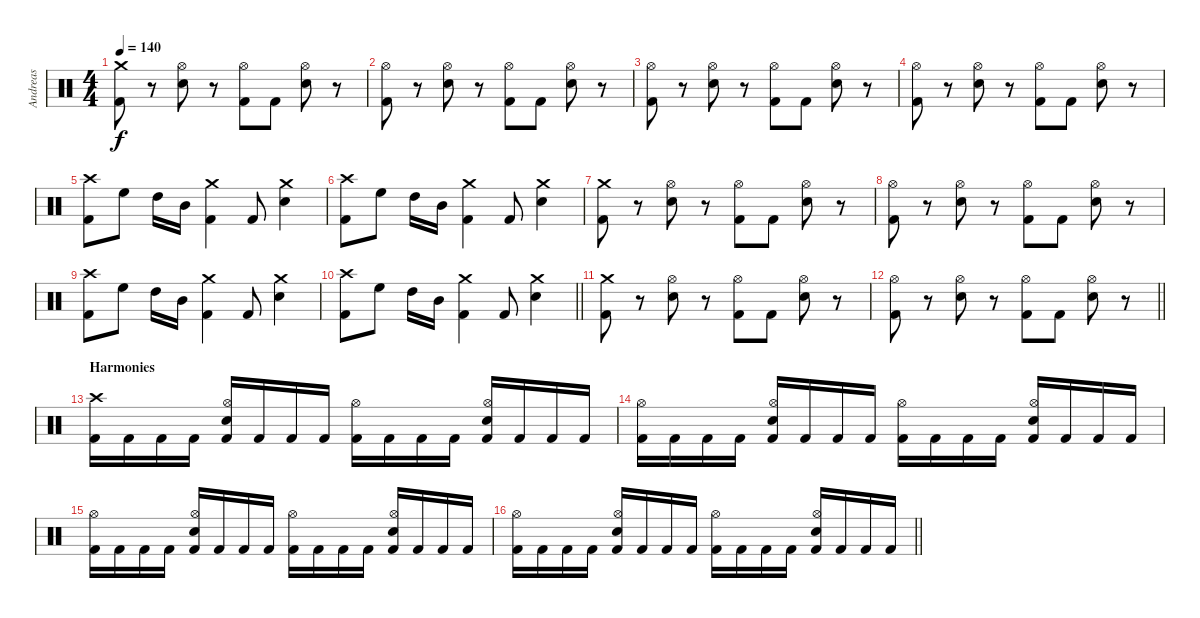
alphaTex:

\track ("Andreas" "Andreas") {instrument percussion}
\staff {score}
\articulation defaults
\ts (4 4)
\tempo 140
\clef neutral
\ks c
("Crash medium (hit)" "Kick (hit) 2").8{dy f} r.8 ("Hi-Hat (open)" "Electric Snare (hit)").8 r.8 ("Hi-Hat (open)" "Kick (hit) 2").8 "Kick (hit) 2".8 ("Hi-Hat (open)" "Electric Snare (hit)").8 r.8 |
("Hi-Hat (open)" "Kick (hit) 2").8 r.8 ("Hi-Hat (open)" "Electric Snare (hit)").8 r.8 ("Hi-Hat (open)" "Kick (hit) 2").8 "Kick (hit) 2".8 ("Hi-Hat (open)" "Electric Snare (hit)").8 r.8 |
("Hi-Hat (open)" "Kick (hit) 2").8 r.8 ("Hi-Hat (open)" "Electric Snare (hit)").8 r.8 ("Hi-Hat (open)" "Kick (hit) 2").8 "Kick (hit) 2".8 ("Hi-Hat (open)" "Electric Snare (hit)").8 r.8 |
("Hi-Hat (open)" "Kick (hit) 2").8 r.8 ("Hi-Hat (open)" "Electric Snare (hit)").8 r.8 ("Hi-Hat (open)" "Kick (hit) 2").8 "Kick (hit) 2".8 ("Hi-Hat (open)" "Electric Snare (hit)").8 r.8 |
("Crash high (hit)" "Kick (hit) 2").8 "High Floor Tom (hit)".8 "High Tom (hit)".16 "Mid Tom (hit)".16 ("Crash medium (hit)" "Kick (hit) 2").4 "Kick (hit) 2".8 ("Crash medium (hit)" "Electric Snare (hit)").4 |
("Crash high (hit)" "Kick (hit) 2").8 "High Floor Tom (hit)".8 "High Tom (hit)".16 "Mid Tom (hit)".16 ("Crash medium (hit)" "Kick (hit) 2").4 "Kick (hit) 2".8 ("Crash medium (hit)" "Electric Snare (hit)").4 |
("Crash medium (hit)" "Kick (hit) 2").8 r.8 ("Hi-Hat (open)" "Electric Snare (hit)").8 r.8 ("Hi-Hat (open)" "Kick (hit) 2").8 "Kick (hit) 2".8 ("Hi-Hat (open)" "Electric Snare (hit)").8 r.8 |
("Hi-Hat (open)" "Kick (hit) 2").8 r.8 ("Hi-Hat (open)" "Electric Snare (hit)").8 r.8 ("Hi-Hat (open)" "Kick (hit) 2").8 "Kick (hit) 2".8 ("Hi-Hat (open)" "Electric Snare (hit)").8 r.8 |
("Crash high (hit)" "Kick (hit) 2").8 "High Floor Tom (hit)".8 "High Tom (hit)".16 "Mid Tom (hit)".16 ("Crash medium (hit)" "Kick (hit) 2").4 "Kick (hit) 2".8 ("Crash medium (hit)" "Electric Snare (hit)").4 |
\barLineRight lightlight
("Crash high (hit)" "Kick (hit) 2").8 "High Floor Tom (hit)".8 "High Tom (hit)".16 "Mid Tom (hit)".16 ("Crash medium (hit)" "Kick (hit) 2").4 "Kick (hit) 2".8 ("Crash medium (hit)" "Electric Snare (hit)").4 |
("Crash medium (hit)" "Kick (hit) 2").8 r.8 ("Hi-Hat (open)" "Electric Snare (hit)").8 r.8 ("Hi-Hat (open)" "Kick (hit) 2").8 "Kick (hit) 2".8 ("Hi-Hat (open)" "Electric Snare (hit)").8 r.8 |
\barLineRight lightlight
("Hi-Hat (open)" "Kick (hit) 2").8 r.8 ("Hi-Hat (open)" "Electric Snare (hit)").8 r.8 ("Hi-Hat (open)" "Kick (hit) 2").8 "Kick (hit) 2".8 ("Hi-Hat (open)" "Electric Snare (hit)").8 r.8 |
\section ("" "Harmonies")
("Crash high (hit)" "Kick (hit) 2").16 "Kick (hit) 2".16 "Kick (hit) 2".16 "Kick (hit) 2".16 ("Hi-Hat (open)" "Electric Snare (hit)" "Kick (hit) 2").16 "Kick (hit) 2".16 "Kick (hit) 2".16 "Kick (hit) 2".16 ("Hi-Hat (open)" "Kick (hit) 2").16 "Kick (hit) 2".16 "Kick (hit) 2".16 "Kick (hit) 2".16 ("Hi-Hat (open)" "Electric Snare (hit)" "Kick (hit) 2").16 "Kick (hit) 2".16 "Kick (hit) 2".16 "Kick (hit) 2".16 |
("Hi-Hat (open)" "Kick (hit) 2").16 "Kick (hit) 2".16 "Kick (hit) 2".16 "Kick (hit) 2".16 ("Hi-Hat (open)" "Electric Snare (hit)" "Kick (hit) 2").16 "Kick (hit) 2".16 "Kick (hit) 2".16 "Kick (hit) 2".16 ("Hi-Hat (open)" "Kick (hit) 2").16 "Kick (hit) 2".16 "Kick (hit) 2".16 "Kick (hit) 2".16 ("Hi-Hat (open)" "Electric Snare (hit)" "Kick (hit) 2").16 "Kick (hit) 2".16 "Kick (hit) 2".16 "Kick (hit) 2".16 |
("Hi-Hat (open)" "Kick (hit) 2").16 "Kick (hit) 2".16 "Kick (hit) 2".16 "Kick (hit) 2".16 ("Hi-Hat (open)" "Electric Snare (hit)" "Kick (hit) 2").16 "Kick (hit) 2".16 "Kick (hit) 2".16 "Kick (hit) 2".16 ("Hi-Hat (open)" "Kick (hit) 2").16 "Kick (hit) 2".16 "Kick (hit) 2".16 "Kick (hit) 2".16 ("Hi-Hat (open)" "Electric Snare (hit)" "Kick (hit) 2").16 "Kick (hit) 2".16 "Kick (hit) 2".16 "Kick (hit) 2".16 |
\barLineRight lightlight
("Hi-Hat (open)" "Kick (hit) 2").16 "Kick (hit) 2".16 "Kick (hit) 2".16 "Kick (hit) 2".16 ("Hi-Hat (open)" "Electric Snare (hit)" "Kick (hit) 2").16 "Kick (hit) 2".16 "Kick (hit) 2".16 "Kick (hit) 2".16 ("Hi-Hat (open)" "Kick (hit) 2").16 "Kick (hit) 2".16 "Kick (hit) 2".16 "Kick (hit) 2".16 ("Hi-Hat (open)" "Electric Snare (hit)" "Kick (hit) 2").16 "Kick (hit) 2".16 "Kick (hit) 2".16 "Kick (hit) 2".16
